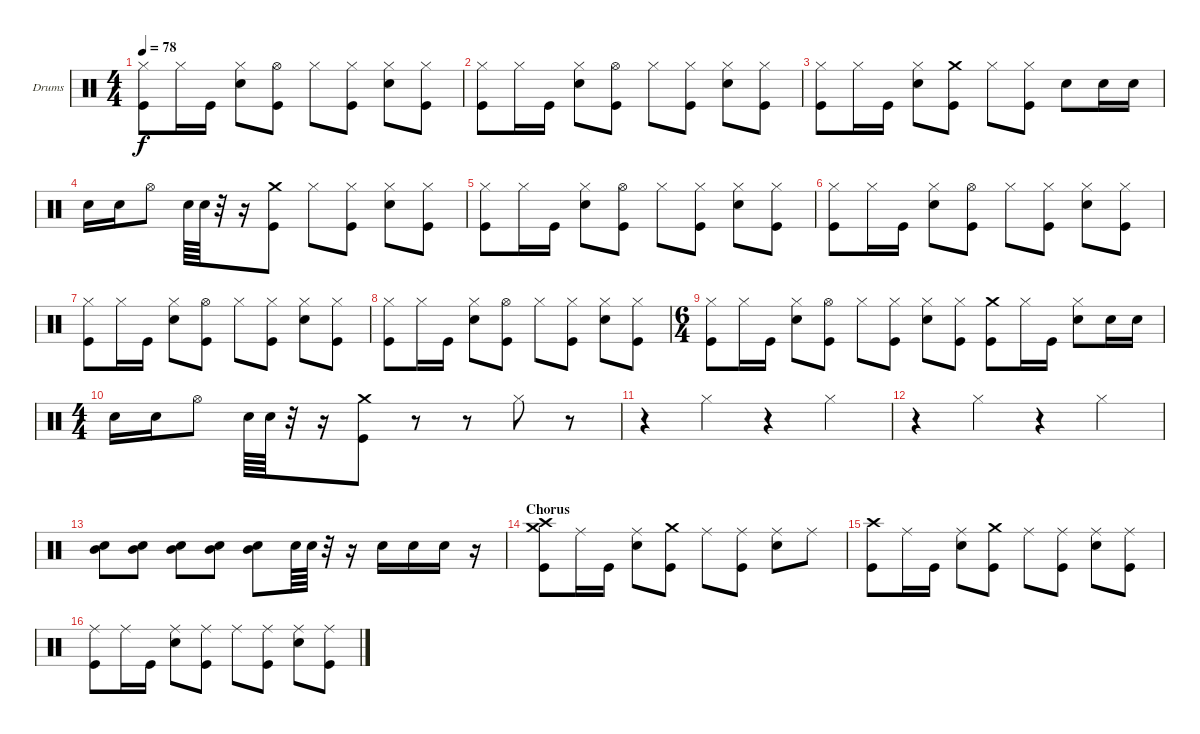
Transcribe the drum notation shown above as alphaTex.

\defaultSystemsLayout 4
\bracketExtendMode nobrackets
\firstSystemTrackNameOrientation horizontal
\otherSystemsTrackNameOrientation horizontal
\track ("Dave Krusen" "Drums") {instrument percussion}
\staff {score}
\articulation defaults
\ts (4 4)
\tempo 78
\clef neutral
\ks c
("Hi-Hat (closed)" "Kick (hit)").8{dy f} "Hi-Hat (closed)".16 "Kick (hit)".16 ("Hi-Hat (closed)" "Snare (hit) 2").8 ("Hi-Hat (open)" "Kick (hit)").8 "Hi-Hat (closed)".8 ("Hi-Hat (closed)" "Kick (hit)").8 ("Hi-Hat (closed)" "Snare (hit) 2").8 ("Hi-Hat (closed)" "Kick (hit)").8 |
("Hi-Hat (closed)" "Kick (hit)").8 "Hi-Hat (closed)".16 "Kick (hit)".16 ("Hi-Hat (closed)" "Snare (hit) 2").8 ("Hi-Hat (open)" "Kick (hit)").8 "Hi-Hat (closed)".8 ("Hi-Hat (closed)" "Kick (hit)").8 ("Hi-Hat (closed)" "Snare (hit) 2").8 ("Hi-Hat (closed)" "Kick (hit)").8 |
("Hi-Hat (closed)" "Kick (hit)").8 "Hi-Hat (closed)".16 "Kick (hit)".16 ("Hi-Hat (closed)" "Snare (hit) 2").8 ("Crash medium (hit)" "Kick (hit)").8 "Hi-Hat (closed)".8 ("Hi-Hat (closed)" "Kick (hit)").8 "Snare (hit) 2".8 "Snare (hit) 2".16 "Snare (hit) 2".16 |
"Snare (hit) 2".16 "Snare (hit) 2".16 "Hi-Hat (open)".8 "Snare (hit) 2".64 "Snare (hit) 2".64 r.32 r.16 ("Crash medium (hit)" "Kick (hit)").8 "Hi-Hat (closed)".8 ("Hi-Hat (closed)" "Kick (hit)").8 ("Hi-Hat (closed)" "Snare (hit) 2").8 ("Hi-Hat (closed)" "Kick (hit)").8 |
("Hi-Hat (closed)" "Kick (hit)").8 "Hi-Hat (closed)".16 "Kick (hit)".16 ("Hi-Hat (closed)" "Snare (hit) 2").8 ("Hi-Hat (open)" "Kick (hit)").8 "Hi-Hat (closed)".8 ("Hi-Hat (closed)" "Kick (hit)").8 ("Hi-Hat (closed)" "Snare (hit) 2").8 ("Hi-Hat (closed)" "Kick (hit)").8 |
("Hi-Hat (closed)" "Kick (hit)").8 "Hi-Hat (closed)".16 "Kick (hit)".16 ("Hi-Hat (closed)" "Snare (hit) 2").8 ("Hi-Hat (open)" "Kick (hit)").8 "Hi-Hat (closed)".8 ("Hi-Hat (closed)" "Kick (hit)").8 ("Hi-Hat (closed)" "Snare (hit) 2").8 ("Hi-Hat (closed)" "Kick (hit)").8 |
("Hi-Hat (closed)" "Kick (hit)").8 "Hi-Hat (closed)".16 "Kick (hit)".16 ("Hi-Hat (closed)" "Snare (hit) 2").8 ("Hi-Hat (open)" "Kick (hit)").8 "Hi-Hat (closed)".8 ("Hi-Hat (closed)" "Kick (hit)").8 ("Hi-Hat (closed)" "Snare (hit) 2").8 ("Hi-Hat (closed)" "Kick (hit)").8 |
("Hi-Hat (closed)" "Kick (hit)").8 "Hi-Hat (closed)".16 "Kick (hit)".16 ("Hi-Hat (closed)" "Snare (hit) 2").8 ("Hi-Hat (open)" "Kick (hit)").8 "Hi-Hat (closed)".8 ("Hi-Hat (closed)" "Kick (hit)").8 ("Hi-Hat (closed)" "Snare (hit) 2").8 ("Hi-Hat (closed)" "Kick (hit)").8 |
\ts (6 4)
("Hi-Hat (closed)" "Kick (hit)").8 "Hi-Hat (closed)".16 "Kick (hit)".16 ("Hi-Hat (closed)" "Snare (hit) 2").8 ("Hi-Hat (open)" "Kick (hit)").8 "Hi-Hat (closed)".8 ("Hi-Hat (closed)" "Kick (hit)").8 ("Hi-Hat (closed)" "Snare (hit) 2").8 ("Hi-Hat (closed)" "Kick (hit)").8 ("Crash medium (hit)" "Kick (hit)").8 "Hi-Hat (closed)".16 "Kick (hit)".16 ("Hi-Hat (closed)" "Snare (hit) 2").8 "Snare (hit) 2".16 "Snare (hit) 2".16 |
\ts (4 4)
"Snare (hit) 2".16 "Snare (hit) 2".16 "Hi-Hat (open)".8 "Snare (hit) 2".64 "Snare (hit) 2".64 r.32 r.16 ("Crash medium (hit)" "Kick (hit)").8 r.8 r.8 "Hi-Hat (closed)".8 r.8 |
r.4 "Hi-Hat (closed)".4 r.4 "Hi-Hat (closed)".4 |
r.4 "Hi-Hat (closed)".4 r.4 "Hi-Hat (closed)".4 |
("Mid Tom (hit)" "Snare (hit) 2").8 ("Mid Tom (hit)" "Snare (hit) 2").8 ("Mid Tom (hit)" "Snare (hit) 2").8 ("Mid Tom (hit)" "Snare (hit) 2").8 ("Mid Tom (hit)" "Snare (hit) 2").8 "Snare (hit) 2".64 "Snare (hit) 2".64 r.32 r.16 "Snare (hit) 2".16 "Snare (hit) 2".16 "Snare (hit) 2".16 r.16 |
\section ("" "Chorus")
("Crash high (hit)" "Crash medium (hit)" "Kick (hit)").8 "Ride (middle)".16 "Kick (hit)".16 ("Ride (middle)" "Snare (hit) 2").8 ("Crash medium (hit)" "Kick (hit)").8 "Ride (middle)".8 ("Ride (middle)" "Kick (hit)").8 ("Ride (middle)" "Snare (hit) 2").8 "Ride (middle)".8 |
("Crash high (hit)" "Kick (hit)").8 "Ride (middle)".16 "Kick (hit)".16 ("Ride (middle)" "Snare (hit) 2").8 ("Crash medium (hit)" "Kick (hit)").8 "Ride (middle)".8 ("Ride (middle)" "Kick (hit)").8 ("Ride (middle)" "Snare (hit) 2").8 ("Ride (middle)" "Kick (hit)").8 |
("Ride (middle)" "Kick (hit)").8 "Ride (middle)".16 "Kick (hit)".16 ("Ride (middle)" "Snare (hit) 2").8 ("Ride (middle)" "Kick (hit)").8 "Ride (middle)".8 ("Ride (middle)" "Kick (hit)").8 ("Ride (middle)" "Snare (hit) 2").8 ("Ride (middle)" "Kick (hit)").8
